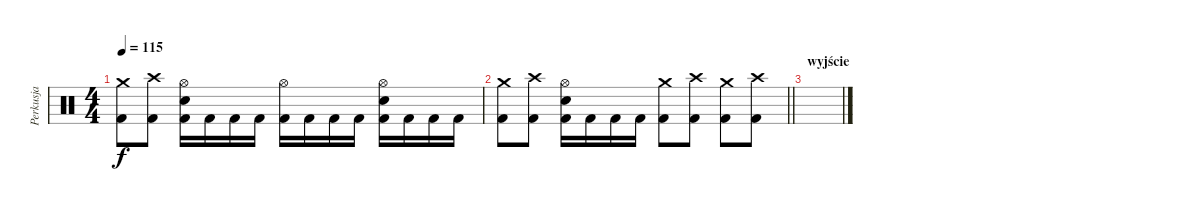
\track ("Perkusja" "Perkusja") {instrument percussion}
\staff {score}
\articulation defaults
\ts (4 4)
\tempo 115
\clef neutral
\ks c
("Crash medium (hit)" "Kick (hit) 2").8{dy f} ("Crash high (hit)" "Kick (hit) 2").8 ("Kick (hit) 2" "Snare (hit) 2" "Hi-Hat (open)").16 "Kick (hit) 2".16 "Kick (hit) 2".16 "Kick (hit) 2".16 ("Kick (hit) 2" "Hi-Hat (open)").16 "Kick (hit) 2".16 "Kick (hit) 2".16 "Kick (hit) 2".16 ("Kick (hit) 2" "Snare (hit) 2" "Hi-Hat (open)").16 "Kick (hit) 2".16 "Kick (hit) 2".16 "Kick (hit) 2".16 |
\barLineRight lightlight
("Crash medium (hit)" "Kick (hit) 2").8 ("Crash high (hit)" "Kick (hit) 2").8 ("Kick (hit) 2" "Snare (hit) 2" "Hi-Hat (open)").16 "Kick (hit) 2".16 "Kick (hit) 2".16 "Kick (hit) 2".16 ("Crash medium (hit)" "Kick (hit) 2").8 ("Crash high (hit)" "Kick (hit) 2").8 ("Crash medium (hit)" "Kick (hit) 2").8 ("Crash high (hit)" "Kick (hit) 2").8 |
\section ("" "wyjście")
